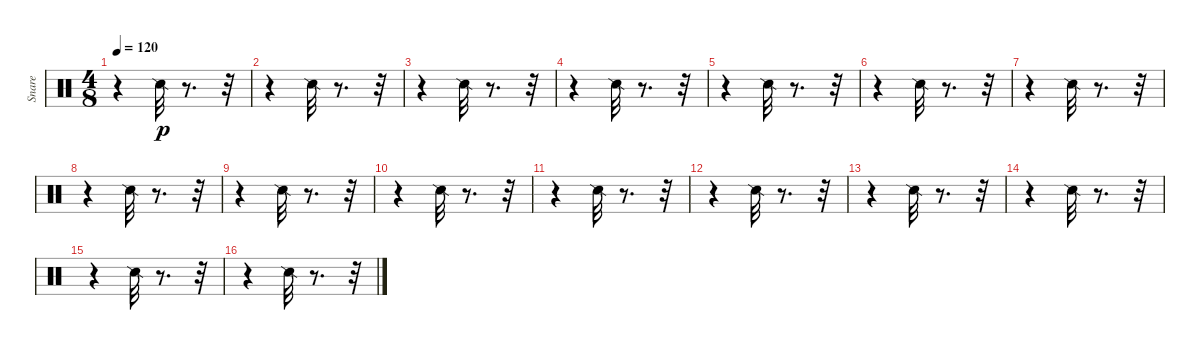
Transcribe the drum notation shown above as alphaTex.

\track ("Snare" "Snare") {instrument percussion}
\staff {score}
\articulation defaults
\ts (4 8)
\tempo 120
\clef neutral
\ks c
r.4{dy p} "Snare (side stick) 2".32 r.8{d} r.32 |
r.4 "Snare (side stick) 2".32 r.8{d} r.32 |
r.4 "Snare (side stick) 2".32 r.8{d} r.32 |
r.4 "Snare (side stick) 2".32 r.8{d} r.32 |
r.4 "Snare (side stick) 2".32 r.8{d} r.32 |
r.4 "Snare (side stick) 2".32 r.8{d} r.32 |
r.4 "Snare (side stick) 2".32 r.8{d} r.32 |
r.4 "Snare (side stick) 2".32 r.8{d} r.32 |
r.4 "Snare (side stick) 2".32 r.8{d} r.32 |
r.4 "Snare (side stick) 2".32 r.8{d} r.32 |
r.4 "Snare (side stick) 2".32 r.8{d} r.32 |
r.4 "Snare (side stick) 2".32 r.8{d} r.32 |
r.4 "Snare (side stick) 2".32 r.8{d} r.32 |
r.4 "Snare (side stick) 2".32 r.8{d} r.32 |
r.4 "Snare (side stick) 2".32 r.8{d} r.32 |
r.4 "Snare (side stick) 2".32 r.8{d} r.32
